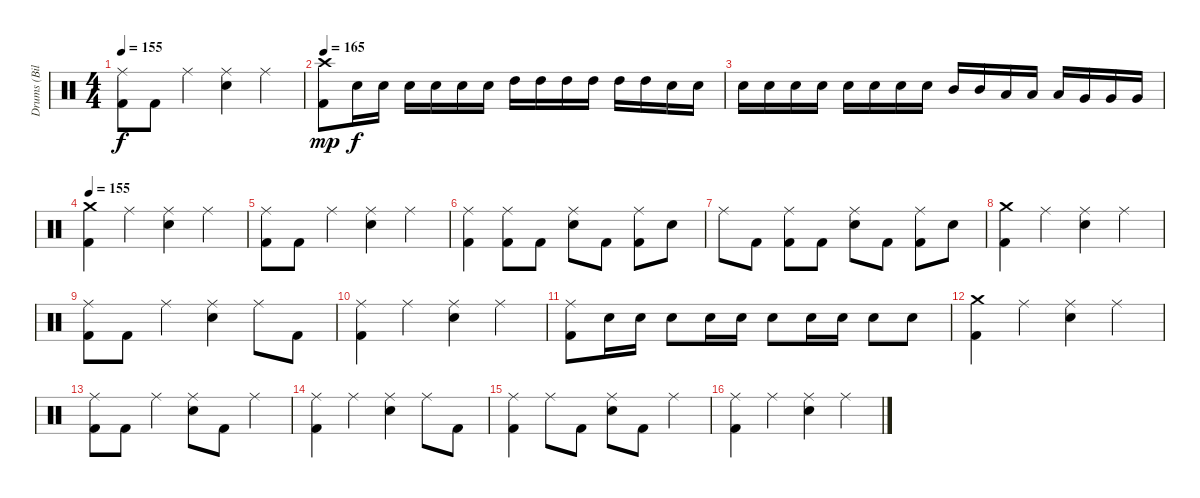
\track ("Drums (Bill Andrews)" "Drums (Bil") {instrument percussion}
\staff
\articulation defaults
\ts (4 4)
\tempo 155
\clef neutral
\ks c
("Ride (middle)" "Kick (hit) 2").8{dy f} "Kick (hit) 2".8 "Ride (middle)".4 ("Ride (middle)" "Electric Snare (hit)").4 "Ride (middle)".4 |
\tempo 165
("Crash high (hit)" "Kick (hit) 2").8{dy mp} "Electric Snare (hit)".16{dy f} "Electric Snare (hit)".16 "Electric Snare (hit)".16 "Electric Snare (hit)".16 "Electric Snare (hit)".16 "Electric Snare (hit)".16 "High Tom (hit)".16 "High Tom (hit)".16 "High Tom (hit)".16 "High Tom (hit)".16 "High Tom (hit)".16 "High Tom (hit)".16 "Electric Snare (hit)".16 "Electric Snare (hit)".16 |
"Electric Snare (hit)".16 "Electric Snare (hit)".16 "Electric Snare (hit)".16 "Electric Snare (hit)".16 "Electric Snare (hit)".16 "Electric Snare (hit)".16 "Electric Snare (hit)".16 "Electric Snare (hit)".16 "Mid Tom (hit)".16 "Mid Tom (hit)".16 "Low Tom (hit)".16 "Low Tom (hit)".16 "Low Tom (hit)".16 "Very Low Tom (hit)".16 "Very Low Tom (hit)".16 "Very Low Tom (hit)".16 |
\tempo 155
("Crash medium (hit)" "Kick (hit) 2").4 "Ride (middle)".4 ("Ride (middle)" "Electric Snare (hit)").4 "Ride (middle)".4 |
("Ride (middle)" "Kick (hit) 2").8 "Kick (hit) 2".8 "Ride (middle)".4 ("Ride (middle)" "Electric Snare (hit)").4 "Ride (middle)".4 |
("Ride (middle)" "Kick (hit) 2").4 ("Ride (middle)" "Kick (hit) 2").8 "Kick (hit) 2".8 ("Ride (middle)" "Electric Snare (hit)").8 "Kick (hit) 2".8 ("Ride (middle)" "Kick (hit) 2").8 "Electric Snare (hit)".8 |
"Ride (middle)".8 "Kick (hit) 2".8 ("Ride (middle)" "Kick (hit) 2").8 "Kick (hit) 2".8 ("Ride (middle)" "Electric Snare (hit)").8 "Kick (hit) 2".8 ("Ride (middle)" "Kick (hit) 2").8 "Electric Snare (hit)".8 |
("Crash medium (hit)" "Kick (hit) 2").4 "Ride (middle)".4 ("Ride (middle)" "Electric Snare (hit)").4 "Ride (middle)".4 |
("Ride (middle)" "Kick (hit) 2").8 "Kick (hit) 2".8 "Ride (middle)".4 ("Ride (middle)" "Electric Snare (hit)").4 "Ride (middle)".8 "Kick (hit) 2".8 |
("Ride (middle)" "Kick (hit) 2").4 "Ride (middle)".4 ("Ride (middle)" "Electric Snare (hit)").4 "Ride (middle)".4 |
("Ride (middle)" "Kick (hit) 2").8 "Electric Snare (hit)".16 "Electric Snare (hit)".16 "Electric Snare (hit)".8 "Electric Snare (hit)".16 "Electric Snare (hit)".16 "Electric Snare (hit)".8 "Electric Snare (hit)".16 "Electric Snare (hit)".16 "Electric Snare (hit)".8 "Electric Snare (hit)".8 |
("Crash medium (hit)" "Kick (hit) 2").4 "Ride (middle)".4 ("Ride (middle)" "Electric Snare (hit)").4 "Ride (middle)".4 |
("Ride (middle)" "Kick (hit) 2").8 "Kick (hit) 2".8 "Ride (middle)".4 ("Ride (middle)" "Electric Snare (hit)").8 "Kick (hit) 2".8 "Ride (middle)".4 |
("Ride (middle)" "Kick (hit) 2").4 "Ride (middle)".4 ("Ride (middle)" "Electric Snare (hit)").4 "Ride (middle)".8 "Kick (hit) 2".8 |
("Ride (middle)" "Kick (hit) 2").4 "Ride (middle)".8 "Kick (hit) 2".8 ("Ride (middle)" "Electric Snare (hit)").8 "Kick (hit) 2".8 "Ride (middle)".4 |
("Ride (middle)" "Kick (hit) 2").4 "Ride (middle)".4 ("Ride (middle)" "Electric Snare (hit)").4 "Ride (middle)".4
